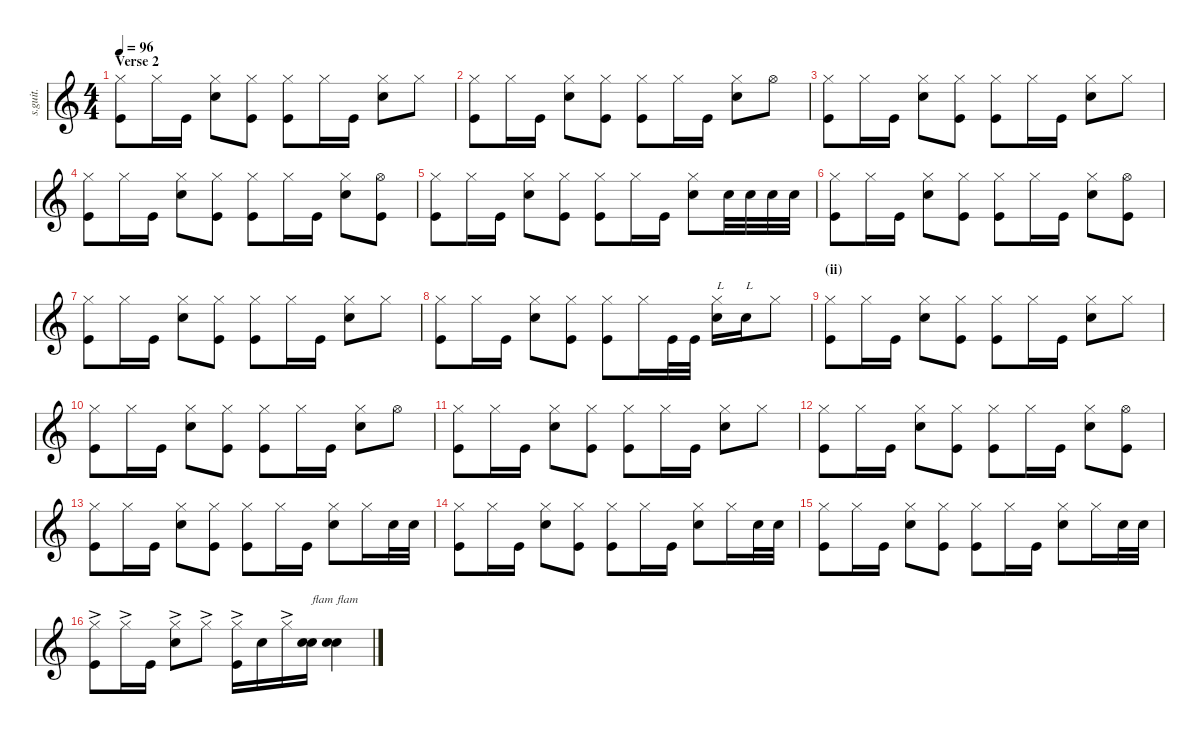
\defaultSystemsLayout 4
\hideDynamics
\bracketExtendMode nobrackets
\track ("Chad Smith" "s.guit.") {instrument percussion}
\staff {score}
\articulation defaults
\ts (4 4)
\section ("" "Verse 2")
\tempo 96
\clef g2
\ks c
("Hi-Hat (closed)" "Kick (hit)").8{dy f} "Hi-Hat (closed)".16 "Kick (hit)".16 ("Hi-Hat (closed)" "Snare (hit) 2").8 ("Hi-Hat (closed)" "Kick (hit)").8 ("Hi-Hat (closed)" "Kick (hit)").8 "Hi-Hat (closed)".16 "Kick (hit)".16 ("Hi-Hat (closed)" "Snare (hit) 2").8 "Hi-Hat (closed)".8 |
("Hi-Hat (closed)" "Kick (hit)").8 "Hi-Hat (closed)".16 "Kick (hit)".16 ("Hi-Hat (closed)" "Snare (hit) 2").8 ("Hi-Hat (closed)" "Kick (hit)").8 ("Hi-Hat (closed)" "Kick (hit)").8 "Hi-Hat (closed)".16 "Kick (hit)".16 ("Hi-Hat (closed)" "Snare (hit) 2").8 "Hi-Hat (open)".8 |
("Hi-Hat (closed)" "Kick (hit)").8 "Hi-Hat (closed)".16 "Kick (hit)".16 ("Hi-Hat (closed)" "Snare (hit) 2").8 ("Hi-Hat (closed)" "Kick (hit)").8 ("Hi-Hat (closed)" "Kick (hit)").8 "Hi-Hat (closed)".16 "Kick (hit)".16 ("Hi-Hat (closed)" "Snare (hit) 2").8 "Hi-Hat (closed)".8 |
("Hi-Hat (closed)" "Kick (hit)").8 "Hi-Hat (closed)".16 "Kick (hit)".16 ("Hi-Hat (closed)" "Snare (hit) 2").8 ("Hi-Hat (closed)" "Kick (hit)").8 ("Hi-Hat (closed)" "Kick (hit)").8 "Hi-Hat (closed)".16 "Kick (hit)".16 ("Hi-Hat (closed)" "Snare (hit) 2").8 ("Hi-Hat (open)" "Kick (hit)").8 |
("Hi-Hat (closed)" "Kick (hit)").8 "Hi-Hat (closed)".16 "Kick (hit)".16 ("Hi-Hat (closed)" "Snare (hit) 2").8 ("Hi-Hat (closed)" "Kick (hit)").8 ("Hi-Hat (closed)" "Kick (hit)").8 "Hi-Hat (closed)".16 "Kick (hit)".16 ("Hi-Hat (closed)" "Snare (hit) 2").8 "Snare (hit) 2".32 "Snare (hit) 2".32 "Snare (hit) 2".32 "Snare (hit) 2".32 |
("Hi-Hat (closed)" "Kick (hit)").8 "Hi-Hat (closed)".16 "Kick (hit)".16 ("Hi-Hat (closed)" "Snare (hit) 2").8 ("Hi-Hat (closed)" "Kick (hit)").8 ("Hi-Hat (closed)" "Kick (hit)").8 "Hi-Hat (closed)".16 "Kick (hit)".16 ("Hi-Hat (closed)" "Snare (hit) 2").8 ("Hi-Hat (open)" "Kick (hit)").8 |
("Hi-Hat (closed)" "Kick (hit)").8 "Hi-Hat (closed)".16 "Kick (hit)".16 ("Hi-Hat (closed)" "Snare (hit) 2").8 ("Hi-Hat (closed)" "Kick (hit)").8 ("Hi-Hat (closed)" "Kick (hit)").8 "Hi-Hat (closed)".16 "Kick (hit)".16 ("Hi-Hat (closed)" "Snare (hit) 2").8 "Hi-Hat (closed)".8 |
("Hi-Hat (closed)" "Kick (hit)").8 "Hi-Hat (closed)".16 "Kick (hit)".16 ("Hi-Hat (closed)" "Snare (hit) 2").8 ("Hi-Hat (closed)" "Kick (hit)").8 ("Hi-Hat (closed)" "Kick (hit)").8 "Hi-Hat (closed)".16 "Kick (hit)".32 "Kick (hit)".32 ("Hi-Hat (closed)" "Snare (hit) 2").16{txt "L"} "Snare (hit) 2".16{txt "L"} "Hi-Hat (closed)".8 |
\section ("" "(ii)")
("Hi-Hat (closed)" "Kick (hit)").8 "Hi-Hat (closed)".16 "Kick (hit)".16 ("Hi-Hat (closed)" "Snare (hit) 2").8 ("Hi-Hat (closed)" "Kick (hit)").8 ("Hi-Hat (closed)" "Kick (hit)").8 "Hi-Hat (closed)".16 "Kick (hit)".16 ("Hi-Hat (closed)" "Snare (hit) 2").8 "Hi-Hat (closed)".8 |
("Hi-Hat (closed)" "Kick (hit)").8 "Hi-Hat (closed)".16 "Kick (hit)".16 ("Hi-Hat (closed)" "Snare (hit) 2").8 ("Hi-Hat (closed)" "Kick (hit)").8 ("Hi-Hat (closed)" "Kick (hit)").8 "Hi-Hat (closed)".16 "Kick (hit)".16 ("Hi-Hat (closed)" "Snare (hit) 2").8 "Hi-Hat (open)".8 |
("Hi-Hat (closed)" "Kick (hit)").8 "Hi-Hat (closed)".16 "Kick (hit)".16 ("Hi-Hat (closed)" "Snare (hit) 2").8 ("Hi-Hat (closed)" "Kick (hit)").8 ("Hi-Hat (closed)" "Kick (hit)").8 "Hi-Hat (closed)".16 "Kick (hit)".16 ("Hi-Hat (closed)" "Snare (hit) 2").8 "Hi-Hat (closed)".8 |
("Hi-Hat (closed)" "Kick (hit)").8 "Hi-Hat (closed)".16 "Kick (hit)".16 ("Hi-Hat (closed)" "Snare (hit) 2").8 ("Hi-Hat (closed)" "Kick (hit)").8 ("Hi-Hat (closed)" "Kick (hit)").8 "Hi-Hat (closed)".16 "Kick (hit)".16 ("Hi-Hat (closed)" "Snare (hit) 2").8 ("Hi-Hat (open)" "Kick (hit)").8 |
("Hi-Hat (closed)" "Kick (hit)").8 "Hi-Hat (closed)".16 "Kick (hit)".16 ("Hi-Hat (closed)" "Snare (hit) 2").8 ("Hi-Hat (closed)" "Kick (hit)").8 ("Hi-Hat (closed)" "Kick (hit)").8 "Hi-Hat (closed)".16 "Kick (hit)".16 ("Hi-Hat (closed)" "Snare (hit) 2").8 "Hi-Hat (closed)".16 "Snare (hit) 2".32 "Snare (hit) 2".32 |
("Hi-Hat (closed)" "Kick (hit)").8 "Hi-Hat (closed)".16 "Kick (hit)".16 ("Hi-Hat (closed)" "Snare (hit) 2").8 ("Hi-Hat (closed)" "Kick (hit)").8 ("Hi-Hat (closed)" "Kick (hit)").8 "Hi-Hat (closed)".16 "Kick (hit)".16 ("Hi-Hat (closed)" "Snare (hit) 2").8 "Hi-Hat (closed)".16 "Snare (hit) 2".32 "Snare (hit) 2".32 |
("Hi-Hat (closed)" "Kick (hit)").8 "Hi-Hat (closed)".16 "Kick (hit)".16 ("Hi-Hat (closed)" "Snare (hit) 2").8 ("Hi-Hat (closed)" "Kick (hit)").8 ("Hi-Hat (closed)" "Kick (hit)").8 "Hi-Hat (closed)".16 "Kick (hit)".16 ("Hi-Hat (closed)" "Snare (hit) 2").8 "Hi-Hat (closed)".16 "Snare (hit) 2".32 "Snare (hit) 2".32 |
("Hi-Hat (closed)"{ac} "Kick (hit)").8 "Hi-Hat (closed)"{ac}.16 "Kick (hit)".16 ("Hi-Hat (closed)"{ac} "Snare (hit) 2").8 "Hi-Hat (closed)"{ac}.8 ("Hi-Hat (closed)"{ac} "Kick (hit)").16 "Snare (hit) 2".16 "Hi-Hat (closed)"{ac}.16 ("Snare (hit) 2" "Snare (hit) 2").16{bd 30 txt "flam"} ("Snare (hit) 2" "Snare (hit) 2").4{bd 30 txt "flam"}
